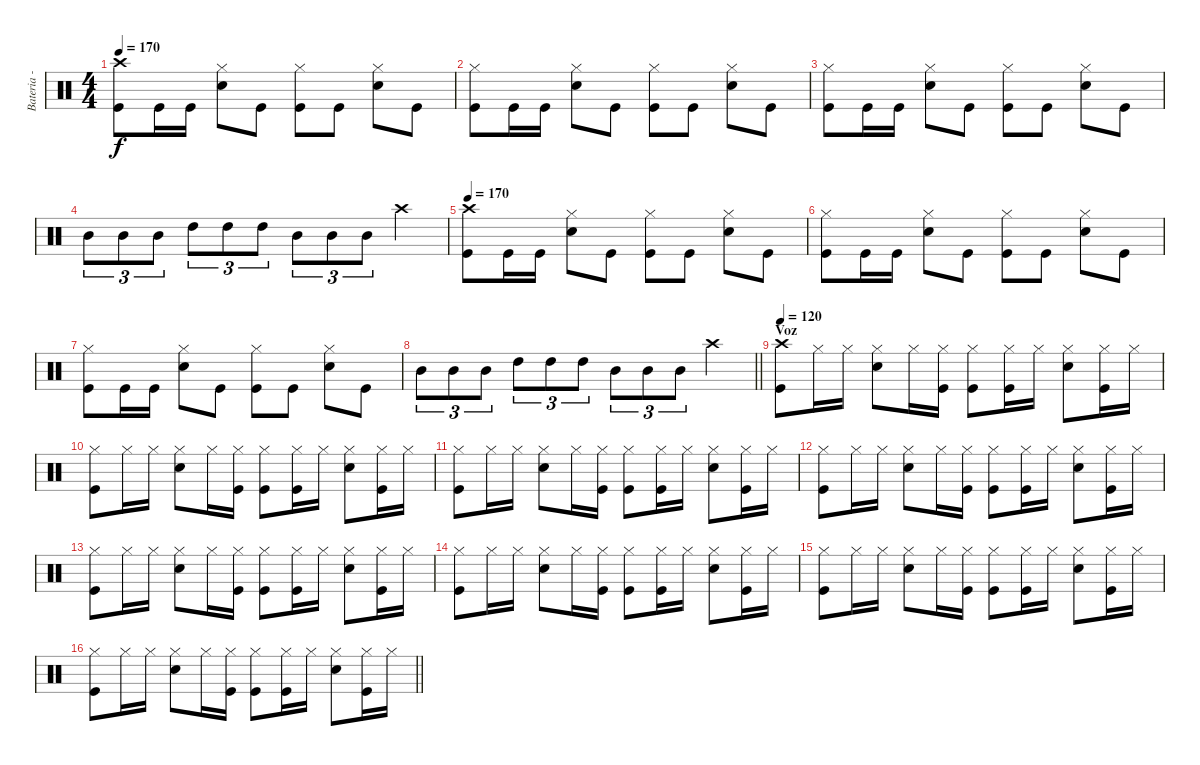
\track ("Bateria - Joaquin" "Bateria - ") {instrument percussion}
\staff {score}
\articulation defaults
\ts (4 4)
\tempo 170
\clef neutral
\ks c
("Crash high (hit)" "Kick (hit)").8{dy f} "Kick (hit)".16 "Kick (hit)".16 ("Hi-Hat (closed)" "Snare (hit) 2").8 "Kick (hit)".8 ("Hi-Hat (closed)" "Kick (hit)").8 "Kick (hit)".8 ("Hi-Hat (closed)" "Snare (hit) 2").8 "Kick (hit)".8 |
("Hi-Hat (closed)" "Kick (hit)").8 "Kick (hit)".16 "Kick (hit)".16 ("Hi-Hat (closed)" "Snare (hit) 2").8 "Kick (hit)".8 ("Hi-Hat (closed)" "Kick (hit)").8 "Kick (hit)".8 ("Hi-Hat (closed)" "Snare (hit) 2").8 "Kick (hit)".8 |
("Hi-Hat (closed)" "Kick (hit)").8 "Kick (hit)".16 "Kick (hit)".16 ("Hi-Hat (closed)" "Snare (hit) 2").8 "Kick (hit)".8 ("Hi-Hat (closed)" "Kick (hit)").8 "Kick (hit)".8 ("Hi-Hat (closed)" "Snare (hit) 2").8 "Kick (hit)".8 |
"Mid Tom (hit)".8{tu (3 2)} "Mid Tom (hit)".8{tu (3 2)} "Mid Tom (hit)".8{tu (3 2)} "High Tom (hit)".8{tu (3 2)} "High Tom (hit)".8{tu (3 2)} "High Tom (hit)".8{tu (3 2)} "Mid Tom (hit)".8{tu (3 2)} "Mid Tom (hit)".8{tu (3 2)} "Mid Tom (hit)".8{tu (3 2)} "Crash high (hit)".4 |
\tempo 170
("Crash high (hit)" "Kick (hit)").8 "Kick (hit)".16 "Kick (hit)".16 ("Hi-Hat (closed)" "Snare (hit) 2").8 "Kick (hit)".8 ("Hi-Hat (closed)" "Kick (hit)").8 "Kick (hit)".8 ("Hi-Hat (closed)" "Snare (hit) 2").8 "Kick (hit)".8 |
("Hi-Hat (closed)" "Kick (hit)").8 "Kick (hit)".16 "Kick (hit)".16 ("Hi-Hat (closed)" "Snare (hit) 2").8 "Kick (hit)".8 ("Hi-Hat (closed)" "Kick (hit)").8 "Kick (hit)".8 ("Hi-Hat (closed)" "Snare (hit) 2").8 "Kick (hit)".8 |
("Hi-Hat (closed)" "Kick (hit)").8 "Kick (hit)".16 "Kick (hit)".16 ("Hi-Hat (closed)" "Snare (hit) 2").8 "Kick (hit)".8 ("Hi-Hat (closed)" "Kick (hit)").8 "Kick (hit)".8 ("Hi-Hat (closed)" "Snare (hit) 2").8 "Kick (hit)".8 |
\barLineRight lightlight "Mid Tom (hit)".8{tu (3 2)} "Mid Tom (hit)".8{tu (3 2)} "Mid Tom (hit)".8{tu (3 2)} "High Tom (hit)".8{tu (3 2)} "High Tom (hit)".8{tu (3 2)} "High Tom (hit)".8{tu (3 2)} "Mid Tom (hit)".8{tu (3 2)} "Mid Tom (hit)".8{tu (3 2)} "Mid Tom (hit)".8{tu (3 2)} "Crash high (hit)".4
|
\section ("" "Voz")
\tempo 120
("Crash high (hit)" "Kick (hit)").8 "Hi-Hat (closed)".16 "Hi-Hat (closed)".16 ("Hi-Hat (closed)" "Snare (hit) 2").8 "Hi-Hat (closed)".16 ("Hi-Hat (closed)" "Kick (hit)").16 ("Hi-Hat (closed)" "Kick (hit)").8 ("Hi-Hat (closed)" "Kick (hit)").16 "Hi-Hat (closed)".16 ("Hi-Hat (closed)" "Snare (hit) 2").8 ("Hi-Hat (closed)" "Kick (hit)").16 "Hi-Hat (closed)".16 |
("Hi-Hat (closed)" "Kick (hit)").8 "Hi-Hat (closed)".16 "Hi-Hat (closed)".16 ("Hi-Hat (closed)" "Snare (hit) 2").8 "Hi-Hat (closed)".16 ("Hi-Hat (closed)" "Kick (hit)").16 ("Hi-Hat (closed)" "Kick (hit)").8 ("Hi-Hat (closed)" "Kick (hit)").16 "Hi-Hat (closed)".16 ("Hi-Hat (closed)" "Snare (hit) 2").8 ("Hi-Hat (closed)" "Kick (hit)").16 "Hi-Hat (closed)".16 |
("Hi-Hat (closed)" "Kick (hit)").8 "Hi-Hat (closed)".16 "Hi-Hat (closed)".16 ("Hi-Hat (closed)" "Snare (hit) 2").8 "Hi-Hat (closed)".16 ("Hi-Hat (closed)" "Kick (hit)").16 ("Hi-Hat (closed)" "Kick (hit)").8 ("Hi-Hat (closed)" "Kick (hit)").16 "Hi-Hat (closed)".16 ("Hi-Hat (closed)" "Snare (hit) 2").8 ("Hi-Hat (closed)" "Kick (hit)").16 "Hi-Hat (closed)".16 |
("Hi-Hat (closed)" "Kick (hit)").8 "Hi-Hat (closed)".16 "Hi-Hat (closed)".16 ("Hi-Hat (closed)" "Snare (hit) 2").8 "Hi-Hat (closed)".16 ("Hi-Hat (closed)" "Kick (hit)").16 ("Hi-Hat (closed)" "Kick (hit)").8 ("Hi-Hat (closed)" "Kick (hit)").16 "Hi-Hat (closed)".16 ("Hi-Hat (closed)" "Snare (hit) 2").8 ("Hi-Hat (closed)" "Kick (hit)").16 "Hi-Hat (closed)".16 |
("Hi-Hat (closed)" "Kick (hit)").8 "Hi-Hat (closed)".16 "Hi-Hat (closed)".16 ("Hi-Hat (closed)" "Snare (hit) 2").8 "Hi-Hat (closed)".16 ("Hi-Hat (closed)" "Kick (hit)").16 ("Hi-Hat (closed)" "Kick (hit)").8 ("Hi-Hat (closed)" "Kick (hit)").16 "Hi-Hat (closed)".16 ("Hi-Hat (closed)" "Snare (hit) 2").8 ("Hi-Hat (closed)" "Kick (hit)").16 "Hi-Hat (closed)".16 |
("Hi-Hat (closed)" "Kick (hit)").8 "Hi-Hat (closed)".16 "Hi-Hat (closed)".16 ("Hi-Hat (closed)" "Snare (hit) 2").8 "Hi-Hat (closed)".16 ("Hi-Hat (closed)" "Kick (hit)").16 ("Hi-Hat (closed)" "Kick (hit)").8 ("Hi-Hat (closed)" "Kick (hit)").16 "Hi-Hat (closed)".16 ("Hi-Hat (closed)" "Snare (hit) 2").8 ("Hi-Hat (closed)" "Kick (hit)").16 "Hi-Hat (closed)".16 |
("Hi-Hat (closed)" "Kick (hit)").8 "Hi-Hat (closed)".16 "Hi-Hat (closed)".16 ("Hi-Hat (closed)" "Snare (hit) 2").8 "Hi-Hat (closed)".16 ("Hi-Hat (closed)" "Kick (hit)").16 ("Hi-Hat (closed)" "Kick (hit)").8 ("Hi-Hat (closed)" "Kick (hit)").16 "Hi-Hat (closed)".16 ("Hi-Hat (closed)" "Snare (hit) 2").8 ("Hi-Hat (closed)" "Kick (hit)").16 "Hi-Hat (closed)".16 |
\barLineRight lightlight
("Hi-Hat (closed)" "Kick (hit)").8 "Hi-Hat (closed)".16 "Hi-Hat (closed)".16 ("Hi-Hat (closed)" "Snare (hit) 2").8 "Hi-Hat (closed)".16 ("Hi-Hat (closed)" "Kick (hit)").16 ("Hi-Hat (closed)" "Kick (hit)").8 ("Hi-Hat (closed)" "Kick (hit)").16 "Hi-Hat (closed)".16 ("Hi-Hat (closed)" "Snare (hit) 2").8 ("Hi-Hat (closed)" "Kick (hit)").16 "Hi-Hat (closed)".16
